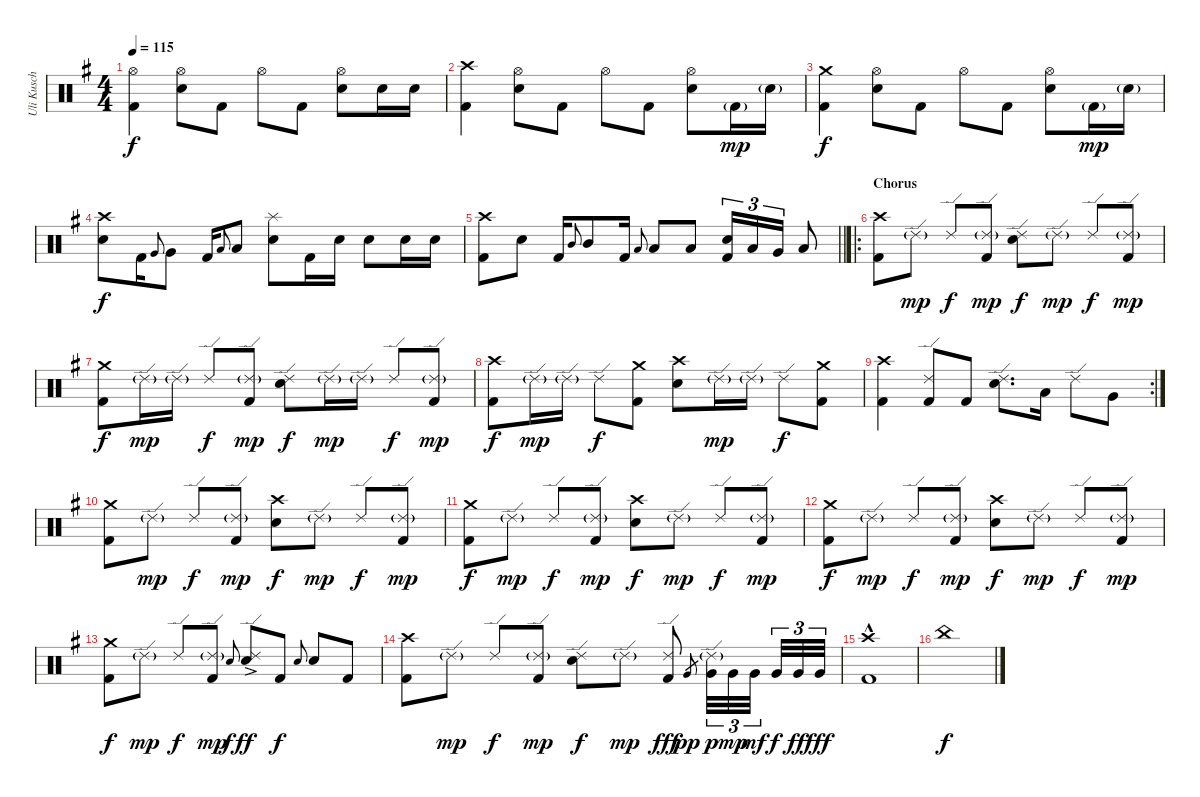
\track ("Uli Kusch" "Uli Kusch") {instrument percussion}
\staff {score}
\articulation defaults
\ts (4 4)
\tempo 115
\clef neutral
\ks eminor
("Hi-Hat (open)" "Kick (hit) 2").4{dy f} ("Hi-Hat (open)" "Snare (hit) 2").8 "Kick (hit) 2".8 "Hi-Hat (open)".8 "Kick (hit) 2".8 ("Hi-Hat (open)" "Snare (hit) 2").8 "Snare (hit) 2".16 "Snare (hit) 2".16 |
("Crash high (hit)" "Kick (hit) 2").4 ("Hi-Hat (open)" "Snare (hit) 2").8 "Kick (hit) 2".8 "Hi-Hat (open)".8 "Kick (hit) 2".8 ("Hi-Hat (open)" "Snare (hit) 2").8 "Kick (hit) 2"{g}.16{dy mp} "Snare (hit) 2"{g}.16 |
("Crash medium (hit)" "Kick (hit) 2").4{dy f} ("Hi-Hat (open)" "Snare (hit) 2").8 "Kick (hit) 2".8 "Hi-Hat (open)".8 "Kick (hit) 2".8 ("Hi-Hat (open)" "Snare (hit) 2").8 "Kick (hit) 2"{g}.16{dy mp} "Snare (hit) 2"{g}.16 |
("Crash high (hit)" "Snare (hit) 2").8{dy f} "Kick (hit) 2".16 "Very Low Tom (hit)".8{gr onbeat} "Very Low Tom (hit)".8 "Kick (hit) 2".16 "Low Floor Tom (hit)".8{gr onbeat} "Low Floor Tom (hit)".8 ("Splash (hit)" "Snare (hit) 2").8 "Kick (hit) 2".16 "Snare (hit) 2".16 "Snare (hit) 2".8 "Snare (hit) 2".16 "Snare (hit) 2".16 |
\barLineRight lightlight
("Crash high (hit)" "Kick (hit) 2").8 "Snare (hit) 2".8 "Kick (hit) 2".16 "Mid Tom (hit)".8{gr onbeat} "Mid Tom (hit)".8 "Kick (hit) 2".16 "Low Tom (hit)".8{gr onbeat} "Low Tom (hit)".8 "Low Tom (hit)".8 ("Snare (hit) 2" "Kick (hit) 2").16{tu (3 2)} "Low Tom (hit)".16{tu (3 2)} "Very Low Tom (hit)".16{tu (3 2)} "Low Floor Tom (hit)".8 |
\ro
\section ("" "Chorus")
("Crash high (hit)" "Kick (hit) 2").8 "Ride (edge) 2"{g}.8{dy mp} "Ride (edge) 2".8{dy f} ("Ride (edge) 2"{g} "Kick (hit) 2").8{dy mp} ("Ride (edge) 2" "Snare (hit) 2").8{dy f} "Ride (edge) 2"{g}.8{dy mp} "Ride (edge) 2".8{dy f} ("Ride (edge) 2"{g} "Kick (hit) 2").8{dy mp} |
("Crash medium (hit)" "Kick (hit) 2").8{dy f} "Ride (edge) 2"{g}.16{dy mp} "Ride (edge) 2"{g}.16 "Ride (edge) 2".8{dy f} ("Ride (edge) 2"{g} "Kick (hit) 2").8{dy mp} ("Ride (edge) 2" "Snare (hit) 2").8{dy f} "Ride (edge) 2"{g}.16{dy mp} "Ride (edge) 2"{g}.16 "Ride (edge) 2".8{dy f} ("Ride (edge) 2"{g} "Kick (hit) 2").8{dy mp} |
("Crash high (hit)" "Kick (hit) 2").8{dy f} "Ride (edge) 2"{g}.16{dy mp} "Ride (edge) 2"{g}.16 "Ride (edge) 2".8{dy f} ("Crash medium (hit)" "Kick (hit) 2").8 ("Crash high (hit)" "Snare (hit) 2").8 "Ride (edge) 2"{g}.16{dy mp} "Ride (edge) 2"{g}.16 "Ride (edge) 2".8{dy f} ("Crash medium (hit)" "Kick (hit) 2").8 |
\rc 2
("Crash high (hit)" "Kick (hit) 2").4 ("Ride (edge) 2" "Kick (hit) 2").8 "Kick (hit) 2".8 ("Ride (edge) 2" "Snare (hit) 2").8{d} "Low Tom (hit)".16 "Ride (edge) 2".8 "Very Low Tom (hit)".8 |
("Crash medium (hit)" "Kick (hit) 2").8 "Ride (edge) 2"{g}.8{dy mp} "Ride (edge) 2".8{dy f} ("Ride (edge) 2"{g} "Kick (hit) 2").8{dy mp} ("Crash high (hit)" "Snare (hit) 2").8{dy f} "Ride (edge) 2"{g}.8{dy mp} "Ride (edge) 2".8{dy f} ("Ride (edge) 2"{g} "Kick (hit) 2").8{dy mp} |
("Crash medium (hit)" "Kick (hit) 2").8{dy f} "Ride (edge) 2"{g}.8{dy mp} "Ride (edge) 2".8{dy f} ("Ride (edge) 2"{g} "Kick (hit) 2").8{dy mp} ("Crash high (hit)" "Snare (hit) 2").8{dy f} "Ride (edge) 2"{g}.8{dy mp} "Ride (edge) 2".8{dy f} ("Ride (edge) 2"{g} "Kick (hit) 2").8{dy mp} |
("Crash medium (hit)" "Kick (hit) 2").8{dy f} "Ride (edge) 2"{g}.8{dy mp} "Ride (edge) 2".8{dy f} ("Ride (edge) 2"{g} "Kick (hit) 2").8{dy mp} ("Crash high (hit)" "Snare (hit) 2").8{dy f} "Ride (edge) 2"{g}.8{dy mp} "Ride (edge) 2".8{dy f} ("Ride (edge) 2"{g} "Kick (hit) 2").8{dy mp} |
("Crash medium (hit)" "Kick (hit) 2").8{dy f} "Ride (edge) 2"{g}.8{dy mp} "Ride (edge) 2".8{dy f} ("Ride (edge) 2"{g} "Kick (hit) 2").8{dy mp} "Snare (hit) 2".8{gr onbeat dy f} ("Ride (edge) 2"{ac} "Snare (hit) 2").8{dy ff} "Kick (hit) 2".8{dy f} "Snare (hit) 2".8{gr onbeat} "Snare (hit) 2".8 "Kick (hit) 2".8 |
("Crash high (hit)" "Kick (hit) 2").8 "Ride (edge) 2"{g}.8{dy mp} "Ride (edge) 2".8{dy f} ("Ride (edge) 2"{g} "Kick (hit) 2").8{dy mp} ("Ride (edge) 2" "Snare (hit) 2").8{dy f} "Ride (edge) 2"{g}.8{dy mp} ("Ride (edge) 2" "Kick (hit) 2").8{dy fff} "Very Low Tom (hit)".8{gr dy pp} ("Ride (edge) 2"{g} "Very Low Tom (hit)").32{tu (3 2) dy p} "Very Low Tom (hit)".32{tu (3 2) dy mp} "Very Low Tom (hit)".32{tu (3 2) dy mf beam splitsecondary} "Very Low Tom (hit)".32{tu (3 2) dy f} "Very Low Tom (hit)".32{tu (3 2) dy ff} "Very Low Tom (hit)".32{tu (3 2) dy fff} |
("Crash high (hit)"{hac} "Kick (hit) 2"{hac}).1 |
"China (hit)".1{dy f}
